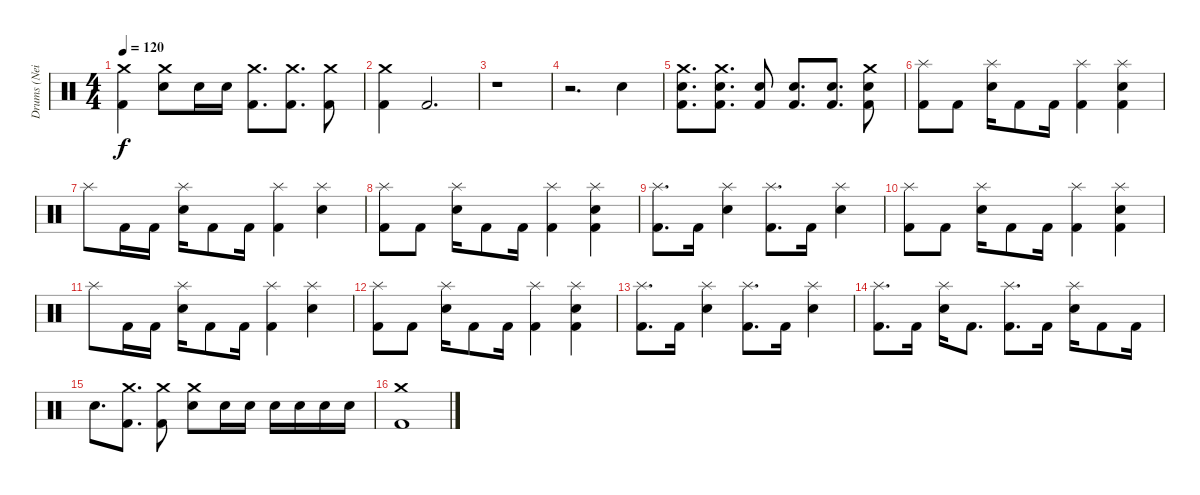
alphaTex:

\track ("Drums (Neil)" "Drums (Nei") {instrument percussion}
\staff {score}
\articulation defaults
\ts (4 4)
\tempo 120
\clef neutral
\ks c
("Crash medium (hit)" "Kick (hit) 2").4{dy f} ("Crash medium (hit)" "Electric Snare (hit)").8 "Electric Snare (hit)".16 "Electric Snare (hit)".16 ("Crash medium (hit)" "Kick (hit) 2").8{d} ("Crash medium (hit)" "Kick (hit) 2").8{d} ("Crash medium (hit)" "Kick (hit) 2").8 |
("Crash medium (hit)" "Kick (hit) 2").4 "Kick (hit) 2".2{d} |
r.1 |
r.2{d} "Electric Snare (hit)".4 |
("Crash medium (hit)" "Electric Snare (hit)" "Kick (hit) 2").8{d} ("Crash medium (hit)" "Electric Snare (hit)" "Kick (hit) 2").8{d} ("Snare (hit) 2" "Kick (hit) 2").8 ("Electric Snare (hit)" "Kick (hit) 2").8{d} ("Snare (hit) 2" "Kick (hit) 2").8{d} ("Crash medium (hit)" "Electric Snare (hit)" "Kick (hit) 2").8 |
("Splash (hit)" "Kick (hit) 2").8 "Kick (hit) 2".8 ("Splash (hit)" "Electric Snare (hit)").16 "Kick (hit) 2".8 "Kick (hit) 2".16 ("Splash (hit)" "Kick (hit) 2").4 ("Splash (hit)" "Electric Snare (hit)" "Kick (hit) 2").4 |
"Splash (hit)".8 "Kick (hit) 2".16 "Kick (hit) 2".16 ("Splash (hit)" "Electric Snare (hit)").16 "Kick (hit) 2".8 "Kick (hit) 2".16 ("Splash (hit)" "Kick (hit) 2").4 ("Splash (hit)" "Electric Snare (hit)").4 |
("Splash (hit)" "Kick (hit) 2").8 "Kick (hit) 2".8 ("Splash (hit)" "Electric Snare (hit)").16 "Kick (hit) 2".8 "Kick (hit) 2".16 ("Splash (hit)" "Kick (hit) 2").4 ("Splash (hit)" "Electric Snare (hit)" "Kick (hit) 2").4 |
("Splash (hit)" "Kick (hit) 2").8{d} "Kick (hit) 2".16 ("Splash (hit)" "Electric Snare (hit)").4 ("Splash (hit)" "Kick (hit) 2").8{d} "Kick (hit) 2".16 ("Splash (hit)" "Electric Snare (hit)").4 |
("Splash (hit)" "Kick (hit) 2").8 "Kick (hit) 2".8 ("Splash (hit)" "Electric Snare (hit)").16 "Kick (hit) 2".8 "Kick (hit) 2".16 ("Splash (hit)" "Kick (hit) 2").4 ("Splash (hit)" "Electric Snare (hit)" "Kick (hit) 2").4 |
"Splash (hit)".8 "Kick (hit) 2".16 "Kick (hit) 2".16 ("Splash (hit)" "Electric Snare (hit)").16 "Kick (hit) 2".8 "Kick (hit) 2".16 ("Splash (hit)" "Kick (hit) 2").4 ("Splash (hit)" "Electric Snare (hit)").4 |
("Splash (hit)" "Kick (hit) 2").8 "Kick (hit) 2".8 ("Splash (hit)" "Electric Snare (hit)").16 "Kick (hit) 2".8 "Kick (hit) 2".16 ("Splash (hit)" "Kick (hit) 2").4 ("Splash (hit)" "Electric Snare (hit)" "Kick (hit) 2").4 |
("Splash (hit)" "Kick (hit) 2").8{d} "Kick (hit) 2".16 ("Splash (hit)" "Electric Snare (hit)").4 ("Splash (hit)" "Kick (hit) 2").8{d} "Kick (hit) 2".16 ("Splash (hit)" "Electric Snare (hit)").4 |
("Splash (hit)" "Kick (hit) 2").8{d} "Kick (hit) 2".16 ("Splash (hit)" "Electric Snare (hit)").16 "Kick (hit) 2".8{d} ("Splash (hit)" "Kick (hit) 2").8{d} "Kick (hit) 2".16 ("Splash (hit)" "Electric Snare (hit)").16 "Kick (hit) 2".8 "Kick (hit) 2".16 |
"Electric Snare (hit)".8{d} ("Crash medium (hit)" "Kick (hit) 2").8{d} ("Crash medium (hit)" "Kick (hit) 2").8 ("Crash medium (hit)" "Electric Snare (hit)").8 "Snare (hit) 2".16 "Electric Snare (hit)".16 "Electric Snare (hit)".16 "Snare (hit) 2".16 "Snare (hit) 2".16 "Snare (hit) 2".16 |
("Crash medium (hit)" "Kick (hit) 2").1
